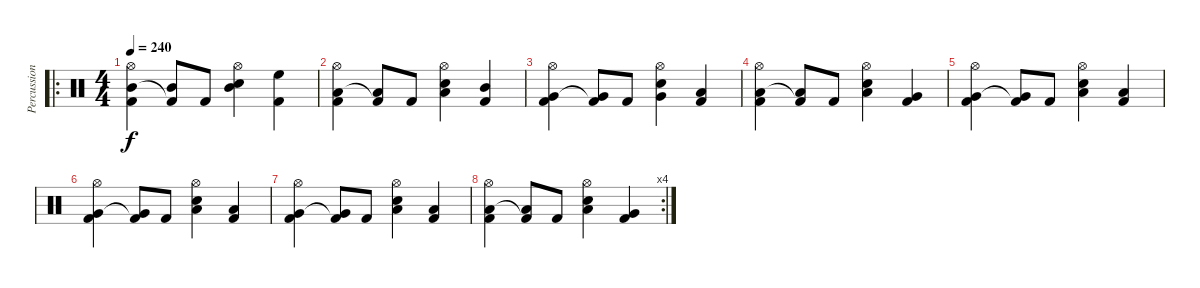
\track ("Percussion" "Percussion") {instrument percussion}
\staff {score}
\articulation defaults
\ro
\ts (4 4)
\tempo 240
\clef neutral
\ks c
("Hi-Hat (open)" "Mid Tom (hit)" "Kick (hit) 2").4{dy f} ("Mid Tom (hit)" "Kick (hit) 2"{t}).8 "Kick (hit) 2".8 ("Hi-Hat (open)" "Mid Tom (hit)" "Snare (hit) 2").4 ("High Floor Tom (hit)" "Kick (hit) 2").4 |
("Hi-Hat (open)" "Low Tom (hit)" "Kick (hit) 2").4 ("Low Tom (hit)" "Kick (hit) 2"{t}).8 "Kick (hit) 2".8 ("Hi-Hat (open)" "Low Tom (hit)" "Snare (hit) 2").4 ("Mid Tom (hit)" "Kick (hit) 2").4 |
("Hi-Hat (open)" "Very Low Tom (hit)" "Kick (hit) 2").4 ("Very Low Tom (hit)" "Kick (hit) 2"{t}).8 "Kick (hit) 2".8 ("Hi-Hat (open)" "Very Low Tom (hit)" "Snare (hit) 2").4 ("Low Tom (hit)" "Kick (hit) 2").4 |
("Hi-Hat (open)" "Low Floor Tom (hit)" "Kick (hit) 2").4 ("Low Floor Tom (hit)" "Kick (hit) 2"{t}).8 "Kick (hit) 2".8 ("Hi-Hat (open)" "Low Floor Tom (hit)" "Snare (hit) 2").4 ("Very Low Tom (hit)" "Kick (hit) 2").4 |
("Hi-Hat (open)" "Very Low Tom (hit)" "Kick (hit) 2").4 ("Very Low Tom (hit)" "Kick (hit) 2"{t}).8 "Kick (hit) 2".8 ("Hi-Hat (open)" "Low Floor Tom (hit)" "Snare (hit) 2").4 ("Low Tom (hit)" "Kick (hit) 2").4 |
("Hi-Hat (open)" "Very Low Tom (hit)" "Kick (hit) 2").4 ("Very Low Tom (hit)" "Kick (hit) 2"{t}).8 "Kick (hit) 2".8 ("Hi-Hat (open)" "Low Floor Tom (hit)" "Snare (hit) 2").4 ("Low Tom (hit)" "Kick (hit) 2").4 |
("Hi-Hat (open)" "Very Low Tom (hit)" "Kick (hit) 2").4 ("Very Low Tom (hit)" "Kick (hit) 2"{t}).8 "Kick (hit) 2".8 ("Hi-Hat (open)" "Low Floor Tom (hit)" "Snare (hit) 2").4 ("Low Tom (hit)" "Kick (hit) 2").4 |
\rc 4
("Hi-Hat (open)" "Low Floor Tom (hit)" "Kick (hit) 2").4 ("Low Floor Tom (hit)" "Kick (hit) 2"{t}).8 "Kick (hit) 2".8 ("Hi-Hat (open)" "Low Floor Tom (hit)" "Snare (hit) 2").4 ("Very Low Tom (hit)" "Kick (hit) 2").4
